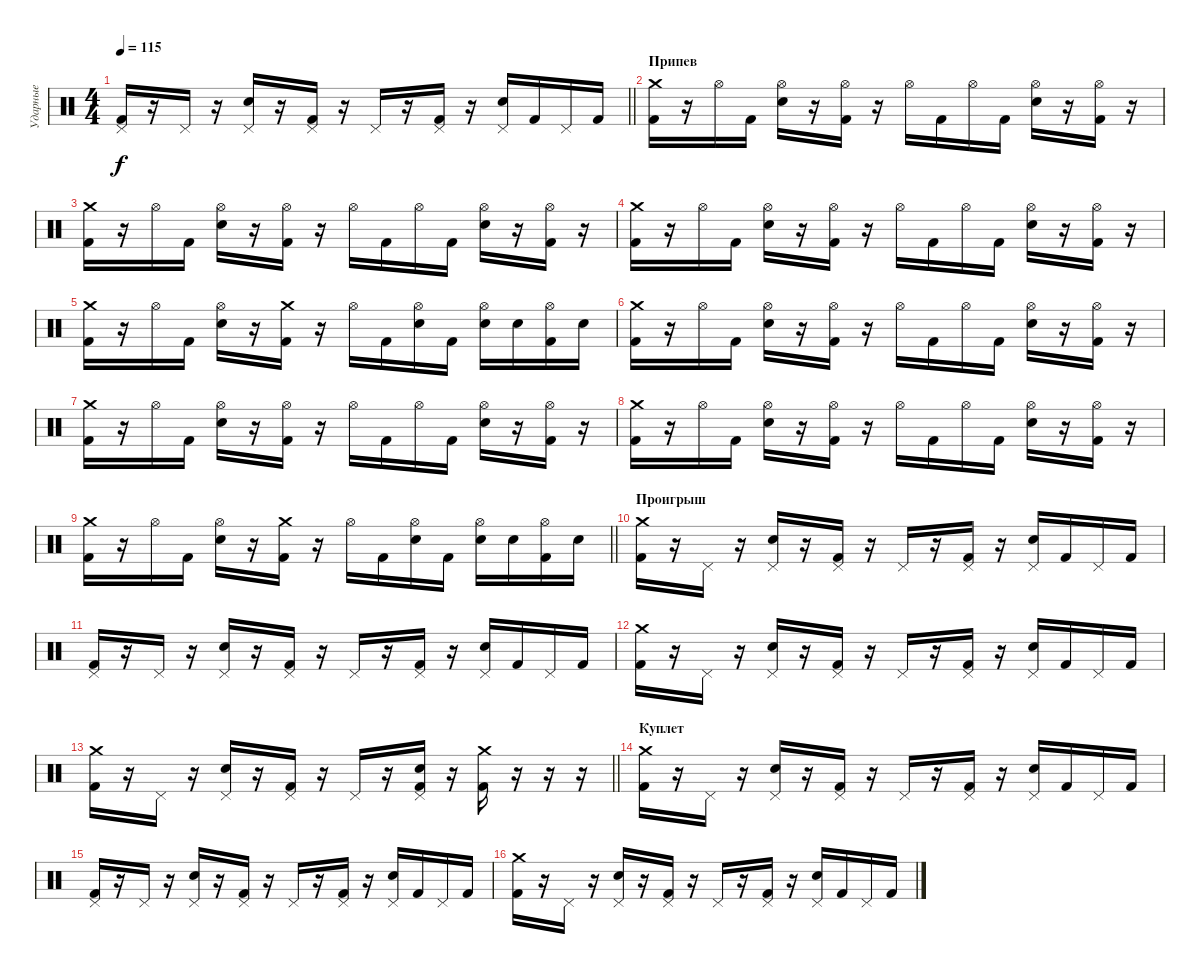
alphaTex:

\track ("Ударные" "Ударные") {instrument percussion}
\staff {score}
\articulation defaults
\ts (4 4)
\tempo 115
\clef neutral
\barLineRight lightlight
\ks c
("Pedal Hi-Hat (hit)" "Kick (hit) 2").16{dy f} r.16 "Pedal Hi-Hat (hit)".16 r.16 ("Pedal Hi-Hat (hit)" "Electric Snare (hit)").16 r.16 ("Pedal Hi-Hat (hit)" "Kick (hit) 2").16 r.16 "Pedal Hi-Hat (hit)".16 r.16 ("Pedal Hi-Hat (hit)" "Kick (hit) 2").16 r.16 ("Pedal Hi-Hat (hit)" "Electric Snare (hit)").16 "Kick (hit) 2".16 "Pedal Hi-Hat (hit)".16 "Kick (hit) 2".16 |
\section ("" "Припев")
("Crash medium (hit)" "Kick (hit) 2").16 r.16 "Hi-Hat (open)".16 "Kick (hit) 2".16 ("Hi-Hat (open)" "Electric Snare (hit)").16 r.16 ("Hi-Hat (open)" "Kick (hit) 2").16 r.16 "Hi-Hat (open)".16 "Kick (hit) 2".16 "Hi-Hat (open)".16 "Kick (hit) 2".16 ("Hi-Hat (open)" "Electric Snare (hit)").16 r.16 ("Hi-Hat (open)" "Kick (hit) 2").16 r.16 |
("Crash medium (hit)" "Kick (hit) 2").16 r.16 "Hi-Hat (open)".16 "Kick (hit) 2".16 ("Hi-Hat (open)" "Electric Snare (hit)").16 r.16 ("Hi-Hat (open)" "Kick (hit) 2").16 r.16 "Hi-Hat (open)".16 "Kick (hit) 2".16 "Hi-Hat (open)".16 "Kick (hit) 2".16 ("Hi-Hat (open)" "Electric Snare (hit)").16 r.16 ("Hi-Hat (open)" "Kick (hit) 2").16 r.16 |
("Crash medium (hit)" "Kick (hit) 2").16 r.16 "Hi-Hat (open)".16 "Kick (hit) 2".16 ("Hi-Hat (open)" "Electric Snare (hit)").16 r.16 ("Hi-Hat (open)" "Kick (hit) 2").16 r.16 "Hi-Hat (open)".16 "Kick (hit) 2".16 "Hi-Hat (open)".16 "Kick (hit) 2".16 ("Hi-Hat (open)" "Electric Snare (hit)").16 r.16 ("Hi-Hat (open)" "Kick (hit) 2").16 r.16 |
("Crash medium (hit)" "Kick (hit) 2").16 r.16 "Hi-Hat (open)".16 "Kick (hit) 2".16 ("Hi-Hat (open)" "Electric Snare (hit)").16 r.16 ("Crash medium (hit)" "Kick (hit) 2").16 r.16 "Hi-Hat (open)".16 "Kick (hit) 2".16 ("Hi-Hat (open)" "Electric Snare (hit)").16 "Kick (hit) 2".16 ("Hi-Hat (open)" "Electric Snare (hit)").16 "Electric Snare (hit)".16 ("Hi-Hat (open)" "Kick (hit) 2").16 "Electric Snare (hit)".16 |
("Crash medium (hit)" "Kick (hit) 2").16 r.16 "Hi-Hat (open)".16 "Kick (hit) 2".16 ("Hi-Hat (open)" "Electric Snare (hit)").16 r.16 ("Hi-Hat (open)" "Kick (hit) 2").16 r.16 "Hi-Hat (open)".16 "Kick (hit) 2".16 "Hi-Hat (open)".16 "Kick (hit) 2".16 ("Hi-Hat (open)" "Electric Snare (hit)").16 r.16 ("Hi-Hat (open)" "Kick (hit) 2").16 r.16 |
("Crash medium (hit)" "Kick (hit) 2").16 r.16 "Hi-Hat (open)".16 "Kick (hit) 2".16 ("Hi-Hat (open)" "Electric Snare (hit)").16 r.16 ("Hi-Hat (open)" "Kick (hit) 2").16 r.16 "Hi-Hat (open)".16 "Kick (hit) 2".16 "Hi-Hat (open)".16 "Kick (hit) 2".16 ("Hi-Hat (open)" "Electric Snare (hit)").16 r.16 ("Hi-Hat (open)" "Kick (hit) 2").16 r.16 |
("Crash medium (hit)" "Kick (hit) 2").16 r.16 "Hi-Hat (open)".16 "Kick (hit) 2".16 ("Hi-Hat (open)" "Electric Snare (hit)").16 r.16 ("Hi-Hat (open)" "Kick (hit) 2").16 r.16 "Hi-Hat (open)".16 "Kick (hit) 2".16 "Hi-Hat (open)".16 "Kick (hit) 2".16 ("Hi-Hat (open)" "Electric Snare (hit)").16 r.16 ("Hi-Hat (open)" "Kick (hit) 2").16 r.16 |
\barLineRight lightlight
("Crash medium (hit)" "Kick (hit) 2").16 r.16 "Hi-Hat (open)".16 "Kick (hit) 2".16 ("Hi-Hat (open)" "Electric Snare (hit)").16 r.16 ("Crash medium (hit)" "Kick (hit) 2").16 r.16 "Hi-Hat (open)".16 "Kick (hit) 2".16 ("Hi-Hat (open)" "Electric Snare (hit)").16 "Kick (hit) 2".16 ("Hi-Hat (open)" "Electric Snare (hit)").16 "Electric Snare (hit)".16 ("Hi-Hat (open)" "Kick (hit) 2").16 "Electric Snare (hit)".16 |
\section ("" "Проигрыш")
("Crash medium (hit)" "Kick (hit) 2").16 r.16 "Pedal Hi-Hat (hit)".16 r.16 ("Pedal Hi-Hat (hit)" "Electric Snare (hit)").16 r.16 ("Pedal Hi-Hat (hit)" "Kick (hit) 2").16 r.16 "Pedal Hi-Hat (hit)".16 r.16 ("Pedal Hi-Hat (hit)" "Kick (hit) 2").16 r.16 ("Pedal Hi-Hat (hit)" "Electric Snare (hit)").16 "Kick (hit) 2".16 "Pedal Hi-Hat (hit)".16 "Kick (hit) 2".16 |
("Pedal Hi-Hat (hit)" "Kick (hit) 2").16 r.16 "Pedal Hi-Hat (hit)".16 r.16 ("Pedal Hi-Hat (hit)" "Electric Snare (hit)").16 r.16 ("Pedal Hi-Hat (hit)" "Kick (hit) 2").16 r.16 "Pedal Hi-Hat (hit)".16 r.16 ("Pedal Hi-Hat (hit)" "Kick (hit) 2").16 r.16 ("Pedal Hi-Hat (hit)" "Electric Snare (hit)").16 "Kick (hit) 2".16 "Pedal Hi-Hat (hit)".16 "Kick (hit) 2".16 |
("Crash medium (hit)" "Kick (hit) 2").16 r.16 "Pedal Hi-Hat (hit)".16 r.16 ("Pedal Hi-Hat (hit)" "Electric Snare (hit)").16 r.16 ("Pedal Hi-Hat (hit)" "Kick (hit) 2").16 r.16 "Pedal Hi-Hat (hit)".16 r.16 ("Pedal Hi-Hat (hit)" "Kick (hit) 2").16 r.16 ("Pedal Hi-Hat (hit)" "Electric Snare (hit)").16 "Kick (hit) 2".16 "Pedal Hi-Hat (hit)".16 "Kick (hit) 2".16 |
\barLineRight lightlight
("Crash medium (hit)" "Kick (hit) 2").16 r.16 "Pedal Hi-Hat (hit)".16 r.16 ("Pedal Hi-Hat (hit)" "Electric Snare (hit)").16 r.16 ("Pedal Hi-Hat (hit)" "Kick (hit) 2").16 r.16 "Pedal Hi-Hat (hit)".16 r.16 ("Pedal Hi-Hat (hit)" "Electric Snare (hit)" "Kick (hit) 2").16 r.16 ("Crash medium (hit)" "Kick (hit) 2").16 r.16 r.16 r.16 |
\section ("" "Куплет")
("Crash medium (hit)" "Kick (hit) 2").16 r.16 "Pedal Hi-Hat (hit)".16 r.16 ("Pedal Hi-Hat (hit)" "Electric Snare (hit)").16 r.16 ("Pedal Hi-Hat (hit)" "Kick (hit) 2").16 r.16 "Pedal Hi-Hat (hit)".16 r.16 ("Pedal Hi-Hat (hit)" "Kick (hit) 2").16 r.16 ("Pedal Hi-Hat (hit)" "Electric Snare (hit)").16 "Kick (hit) 2".16 "Pedal Hi-Hat (hit)".16 "Kick (hit) 2".16 |
("Pedal Hi-Hat (hit)" "Kick (hit) 2").16 r.16 "Pedal Hi-Hat (hit)".16 r.16 ("Pedal Hi-Hat (hit)" "Electric Snare (hit)").16 r.16 ("Pedal Hi-Hat (hit)" "Kick (hit) 2").16 r.16 "Pedal Hi-Hat (hit)".16 r.16 ("Pedal Hi-Hat (hit)" "Kick (hit) 2").16 r.16 ("Pedal Hi-Hat (hit)" "Electric Snare (hit)").16 "Kick (hit) 2".16 "Pedal Hi-Hat (hit)".16 "Kick (hit) 2".16 |
("Crash medium (hit)" "Kick (hit) 2").16 r.16 "Pedal Hi-Hat (hit)".16 r.16 ("Pedal Hi-Hat (hit)" "Electric Snare (hit)").16 r.16 ("Pedal Hi-Hat (hit)" "Kick (hit) 2").16 r.16 "Pedal Hi-Hat (hit)".16 r.16 ("Pedal Hi-Hat (hit)" "Kick (hit) 2").16 r.16 ("Pedal Hi-Hat (hit)" "Electric Snare (hit)").16 "Kick (hit) 2".16 "Pedal Hi-Hat (hit)".16 "Kick (hit) 2".16
